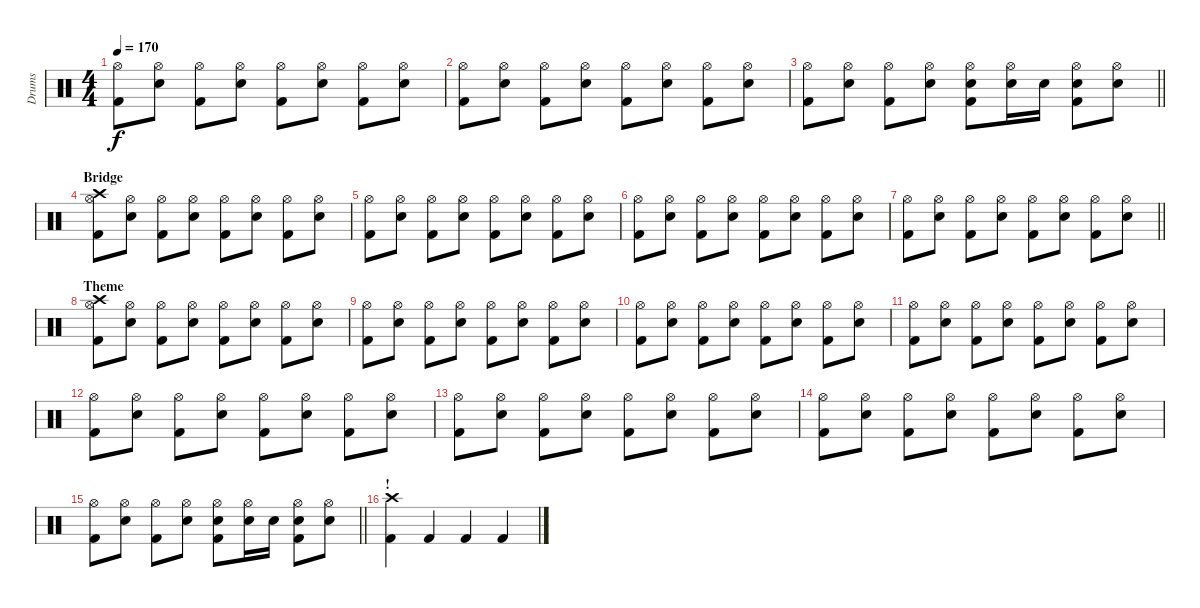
\track ("Drums" "Drums") {instrument percussion}
\staff {score}
\articulation defaults
\ts (4 4)
\tempo 170
\clef neutral
\ks c
("Hi-Hat (open)" "Kick (hit) 2").8{dy f} ("Hi-Hat (open)" "Snare (hit) 2").8 ("Hi-Hat (open)" "Kick (hit) 2").8 ("Hi-Hat (open)" "Snare (hit) 2").8 ("Hi-Hat (open)" "Kick (hit) 2").8 ("Hi-Hat (open)" "Snare (hit) 2").8 ("Hi-Hat (open)" "Kick (hit) 2").8 ("Hi-Hat (open)" "Snare (hit) 2").8 |
("Hi-Hat (open)" "Kick (hit) 2").8 ("Hi-Hat (open)" "Snare (hit) 2").8 ("Hi-Hat (open)" "Kick (hit) 2").8 ("Hi-Hat (open)" "Snare (hit) 2").8 ("Hi-Hat (open)" "Kick (hit) 2").8 ("Hi-Hat (open)" "Snare (hit) 2").8 ("Hi-Hat (open)" "Kick (hit) 2").8 ("Hi-Hat (open)" "Snare (hit) 2").8 |
\barLineRight lightlight
("Hi-Hat (open)" "Kick (hit) 2").8 ("Hi-Hat (open)" "Snare (hit) 2").8 ("Hi-Hat (open)" "Kick (hit) 2").8 ("Hi-Hat (open)" "Snare (hit) 2").8 ("Hi-Hat (open)" "Snare (hit) 2" "Kick (hit) 2").8 ("Hi-Hat (open)" "Snare (hit) 2").16 "Snare (hit) 2".16 ("Hi-Hat (open)" "Snare (hit) 2" "Kick (hit) 2").8 ("Hi-Hat (open)" "Snare (hit) 2").8 |
\section ("" "Bridge")
("Hi-Hat (open)" "Crash high (hit)" "Kick (hit) 2").8 ("Hi-Hat (open)" "Snare (hit) 2").8 ("Hi-Hat (open)" "Kick (hit) 2").8 ("Hi-Hat (open)" "Snare (hit) 2").8 ("Hi-Hat (open)" "Kick (hit) 2").8 ("Hi-Hat (open)" "Snare (hit) 2").8 ("Hi-Hat (open)" "Kick (hit) 2").8 ("Hi-Hat (open)" "Snare (hit) 2").8 |
("Hi-Hat (open)" "Kick (hit) 2").8 ("Hi-Hat (open)" "Snare (hit) 2").8 ("Hi-Hat (open)" "Kick (hit) 2").8 ("Hi-Hat (open)" "Snare (hit) 2").8 ("Hi-Hat (open)" "Kick (hit) 2").8 ("Hi-Hat (open)" "Snare (hit) 2").8 ("Hi-Hat (open)" "Kick (hit) 2").8 ("Hi-Hat (open)" "Snare (hit) 2").8 |
("Hi-Hat (open)" "Kick (hit) 2").8 ("Hi-Hat (open)" "Snare (hit) 2").8 ("Hi-Hat (open)" "Kick (hit) 2").8 ("Hi-Hat (open)" "Snare (hit) 2").8 ("Hi-Hat (open)" "Kick (hit) 2").8 ("Hi-Hat (open)" "Snare (hit) 2").8 ("Hi-Hat (open)" "Kick (hit) 2").8 ("Hi-Hat (open)" "Snare (hit) 2").8 |
\barLineRight lightlight
("Hi-Hat (open)" "Kick (hit) 2").8 ("Hi-Hat (open)" "Snare (hit) 2").8 ("Hi-Hat (open)" "Kick (hit) 2").8 ("Hi-Hat (open)" "Snare (hit) 2").8 ("Hi-Hat (open)" "Kick (hit) 2").8 ("Hi-Hat (open)" "Snare (hit) 2").8 ("Hi-Hat (open)" "Kick (hit) 2").8 ("Hi-Hat (open)" "Snare (hit) 2").8 |
\section ("" "Theme")
("Hi-Hat (open)" "Crash high (hit)" "Kick (hit) 2").8 ("Hi-Hat (open)" "Snare (hit) 2").8 ("Hi-Hat (open)" "Kick (hit) 2").8 ("Hi-Hat (open)" "Snare (hit) 2").8 ("Hi-Hat (open)" "Kick (hit) 2").8 ("Hi-Hat (open)" "Snare (hit) 2").8 ("Hi-Hat (open)" "Kick (hit) 2").8 ("Hi-Hat (open)" "Snare (hit) 2").8 |
("Hi-Hat (open)" "Kick (hit) 2").8 ("Hi-Hat (open)" "Snare (hit) 2").8 ("Hi-Hat (open)" "Kick (hit) 2").8 ("Hi-Hat (open)" "Snare (hit) 2").8 ("Hi-Hat (open)" "Kick (hit) 2").8 ("Hi-Hat (open)" "Snare (hit) 2").8 ("Hi-Hat (open)" "Kick (hit) 2").8 ("Hi-Hat (open)" "Snare (hit) 2").8 |
("Hi-Hat (open)" "Kick (hit) 2").8 ("Hi-Hat (open)" "Snare (hit) 2").8 ("Hi-Hat (open)" "Kick (hit) 2").8 ("Hi-Hat (open)" "Snare (hit) 2").8 ("Hi-Hat (open)" "Kick (hit) 2").8 ("Hi-Hat (open)" "Snare (hit) 2").8 ("Hi-Hat (open)" "Kick (hit) 2").8 ("Hi-Hat (open)" "Snare (hit) 2").8 |
("Hi-Hat (open)" "Kick (hit) 2").8 ("Hi-Hat (open)" "Snare (hit) 2").8 ("Hi-Hat (open)" "Kick (hit) 2").8 ("Hi-Hat (open)" "Snare (hit) 2").8 ("Hi-Hat (open)" "Kick (hit) 2").8 ("Hi-Hat (open)" "Snare (hit) 2").8 ("Hi-Hat (open)" "Kick (hit) 2").8 ("Hi-Hat (open)" "Snare (hit) 2").8 |
("Hi-Hat (open)" "Kick (hit) 2").8 ("Hi-Hat (open)" "Snare (hit) 2").8 ("Hi-Hat (open)" "Kick (hit) 2").8 ("Hi-Hat (open)" "Snare (hit) 2").8 ("Hi-Hat (open)" "Kick (hit) 2").8 ("Hi-Hat (open)" "Snare (hit) 2").8 ("Hi-Hat (open)" "Kick (hit) 2").8 ("Hi-Hat (open)" "Snare (hit) 2").8 |
("Hi-Hat (open)" "Kick (hit) 2").8 ("Hi-Hat (open)" "Snare (hit) 2").8 ("Hi-Hat (open)" "Kick (hit) 2").8 ("Hi-Hat (open)" "Snare (hit) 2").8 ("Hi-Hat (open)" "Kick (hit) 2").8 ("Hi-Hat (open)" "Snare (hit) 2").8 ("Hi-Hat (open)" "Kick (hit) 2").8 ("Hi-Hat (open)" "Snare (hit) 2").8 |
("Hi-Hat (open)" "Kick (hit) 2").8 ("Hi-Hat (open)" "Snare (hit) 2").8 ("Hi-Hat (open)" "Kick (hit) 2").8 ("Hi-Hat (open)" "Snare (hit) 2").8 ("Hi-Hat (open)" "Kick (hit) 2").8 ("Hi-Hat (open)" "Snare (hit) 2").8 ("Hi-Hat (open)" "Kick (hit) 2").8 ("Hi-Hat (open)" "Snare (hit) 2").8 |
\barLineRight lightlight
("Hi-Hat (open)" "Kick (hit) 2").8 ("Hi-Hat (open)" "Snare (hit) 2").8 ("Hi-Hat (open)" "Kick (hit) 2").8 ("Hi-Hat (open)" "Snare (hit) 2").8 ("Hi-Hat (open)" "Snare (hit) 2" "Kick (hit) 2").8 ("Hi-Hat (open)" "Snare (hit) 2").16 "Snare (hit) 2".16 ("Hi-Hat (open)" "Snare (hit) 2" "Kick (hit) 2").8 ("Hi-Hat (open)" "Snare (hit) 2").8 |
\section ("" "!")
("Crash high (hit)" "Kick (hit) 2").4 "Kick (hit) 2".4 "Kick (hit) 2".4 "Kick (hit) 2".4
